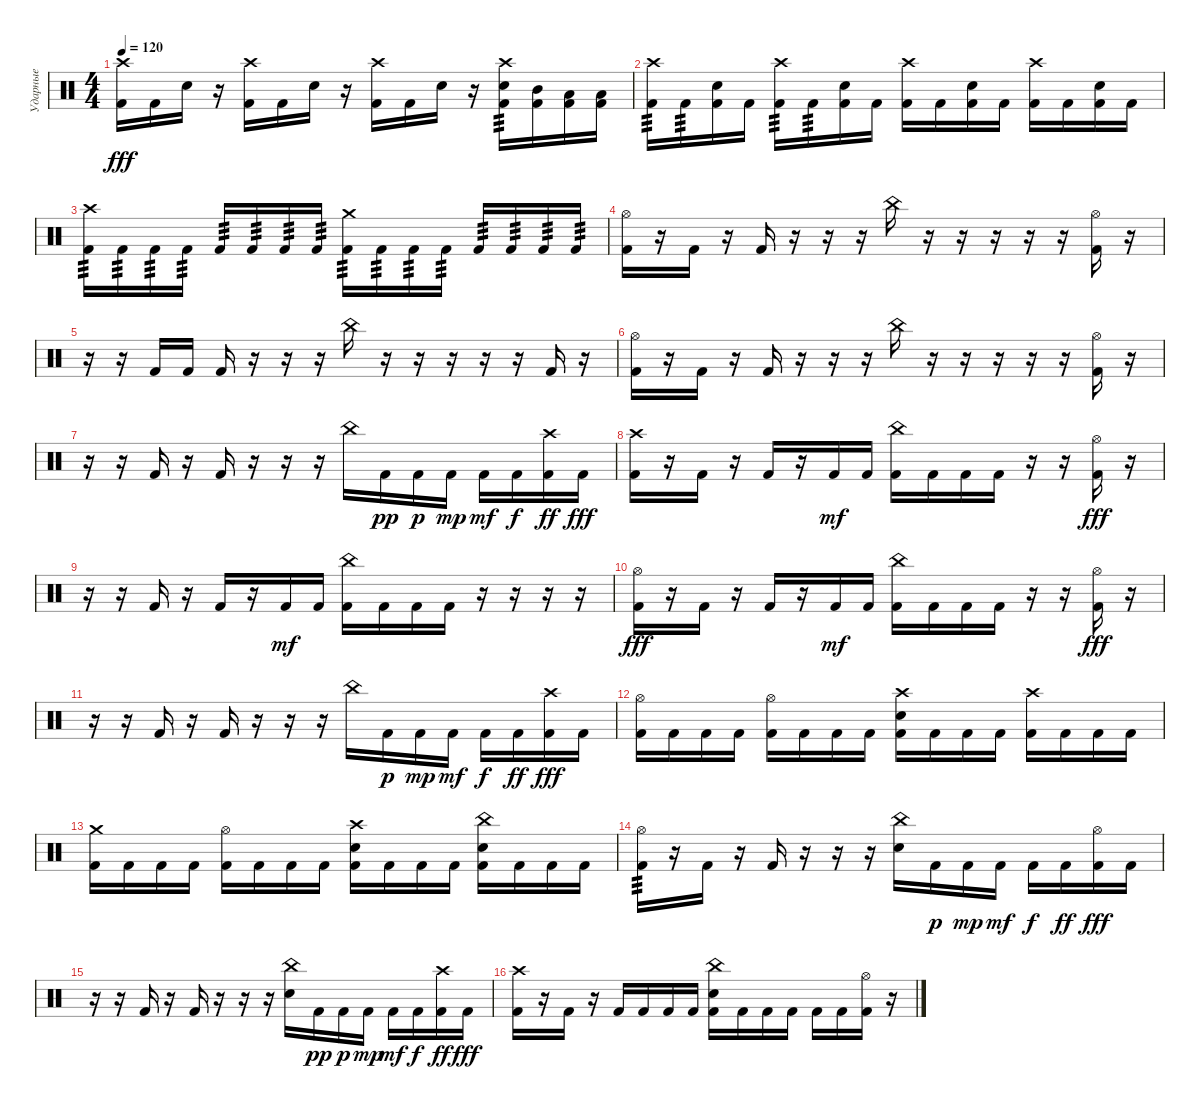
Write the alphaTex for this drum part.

\track ("Ударные" "Ударные") {instrument percussion}
\staff {score}
\articulation defaults
\ts (4 4)
\tempo 120
\clef neutral
\ks c
("Crash high (hit)" "Kick (hit) 2").16{dy fff} "Kick (hit) 2".16 "Snare (hit) 2".16 r.16 ("Crash high (hit)" "Kick (hit) 2").16 "Kick (hit) 2".16 "Snare (hit) 2".16 r.16 ("Crash high (hit)" "Kick (hit) 2").16 "Kick (hit) 2".16 "Snare (hit) 2".16 r.16 ("Crash high (hit)" "Snare (hit) 2" "Kick (hit) 2").16{tp 3} ("Mid Tom (hit)" "Kick (hit) 2").16 ("Low Tom (hit)" "Kick (hit) 2").16 ("Low Floor Tom (hit)" "Kick (hit) 2").16 |
("Crash high (hit)" "Kick (hit) 2").16{tp 3} "Kick (hit) 2".16{tp 3} ("Snare (hit) 2" "Kick (hit) 2").16 "Kick (hit) 2".16 ("Crash high (hit)" "Kick (hit) 2").16{tp 3} "Kick (hit) 2".16{tp 3} ("Snare (hit) 2" "Kick (hit) 2").16 "Kick (hit) 2".16 ("Crash high (hit)" "Kick (hit) 2").16 "Kick (hit) 2".16 ("Snare (hit) 2" "Kick (hit) 2").16 "Kick (hit) 2".16 ("Crash high (hit)" "Kick (hit) 2").16 "Kick (hit) 2".16 ("Snare (hit) 2" "Kick (hit) 2").16 "Kick (hit) 2".16 |
("Crash high (hit)" "Kick (hit) 2").16{tp 3} "Kick (hit) 2".16{tp 3} "Kick (hit) 2".16{tp 3} "Kick (hit) 2".16{tp 3} "Kick (hit) 2".16{tp 3} "Kick (hit) 2".16{tp 3} "Kick (hit) 2".16{tp 3} "Kick (hit) 2".16{tp 3} ("Crash medium (hit)" "Kick (hit) 2").16{tp 3} "Kick (hit) 2".16{tp 3} "Kick (hit) 2".16{tp 3} "Kick (hit) 2".16{tp 3} "Kick (hit) 2".16{tp 3} "Kick (hit) 2".16{tp 3} "Kick (hit) 2".16{tp 3} "Kick (hit) 2".16{tp 3} |
("Hi-Hat (open)" "Kick (hit) 2").16 r.16 "Kick (hit) 2".16 r.16 "Kick (hit) 2".16 r.16 r.16 r.16 "China (hit)".16 r.16 r.16 r.16 r.16 r.16 ("Hi-Hat (open)" "Kick (hit) 2").16 r.16 |
r.16 r.16 "Kick (hit) 2".16 "Kick (hit) 2".16 "Kick (hit) 2".16 r.16 r.16 r.16 "China (hit)".16 r.16 r.16 r.16 r.16 r.16 "Kick (hit) 2".16 r.16 |
("Hi-Hat (open)" "Kick (hit) 2").16 r.16 "Kick (hit) 2".16 r.16 "Kick (hit) 2".16 r.16 r.16 r.16 "China (hit)".16 r.16 r.16 r.16 r.16 r.16 ("Hi-Hat (open)" "Kick (hit) 2").16 r.16 |
r.16 r.16 "Kick (hit) 2".16 r.16 "Kick (hit) 2".16 r.16 r.16 r.16 "China (hit)".16 "Kick (hit) 2".16{dy pp} "Kick (hit) 2".16{dy p} "Kick (hit) 2".16{dy mp} "Kick (hit) 2".16{dy mf} "Kick (hit) 2".16{dy f} ("Crash high (hit)" "Kick (hit) 2").16{dy ff} "Kick (hit) 2".16{dy fff} |
("Crash high (hit)" "Kick (hit) 2").16 r.16 "Kick (hit) 2".16 r.16 "Kick (hit) 2".16 r.16 "Kick (hit) 2".16{dy mf} "Kick (hit) 2".16 ("China (hit)" "Kick (hit) 2").16 "Kick (hit) 2".16 "Kick (hit) 2".16 "Kick (hit) 2".16 r.16 r.16 ("Hi-Hat (open)" "Kick (hit) 2").16{dy fff} r.16 |
r.16 r.16 "Kick (hit) 2".16 r.16 "Kick (hit) 2".16 r.16 "Kick (hit) 2".16{dy mf} "Kick (hit) 2".16 ("China (hit)" "Kick (hit) 2").16 "Kick (hit) 2".16 "Kick (hit) 2".16 "Kick (hit) 2".16 r.16 r.16 r.16 r.16 |
("Hi-Hat (open)" "Kick (hit) 2").16{dy fff} r.16 "Kick (hit) 2".16 r.16 "Kick (hit) 2".16 r.16 "Kick (hit) 2".16{dy mf} "Kick (hit) 2".16 ("China (hit)" "Kick (hit) 2").16 "Kick (hit) 2".16 "Kick (hit) 2".16 "Kick (hit) 2".16 r.16 r.16 ("Hi-Hat (open)" "Kick (hit) 2").16{dy fff} r.16 |
r.16 r.16 "Kick (hit) 2".16 r.16 "Kick (hit) 2".16 r.16 r.16 r.16 "China (hit)".16 "Kick (hit) 2".16{dy p} "Kick (hit) 2".16{dy mp} "Kick (hit) 2".16{dy mf} "Kick (hit) 2".16{dy f} "Kick (hit) 2".16{dy ff} ("Crash high (hit)" "Kick (hit) 2").16{dy fff} "Kick (hit) 2".16 |
("Hi-Hat (open)" "Kick (hit) 2").16 "Kick (hit) 2".16 "Kick (hit) 2".16 "Kick (hit) 2".16 ("Hi-Hat (open)" "Kick (hit) 2").16 "Kick (hit) 2".16 "Kick (hit) 2".16 "Kick (hit) 2".16 ("Crash high (hit)" "Snare (hit) 2" "Kick (hit) 2").16 "Kick (hit) 2".16 "Kick (hit) 2".16 "Kick (hit) 2".16 ("Crash high (hit)" "Kick (hit) 2").16 "Kick (hit) 2".16 "Kick (hit) 2".16 "Kick (hit) 2".16 |
("Crash medium (hit)" "Kick (hit) 2").16 "Kick (hit) 2".16 "Kick (hit) 2".16 "Kick (hit) 2".16 ("Hi-Hat (open)" "Kick (hit) 2").16 "Kick (hit) 2".16 "Kick (hit) 2".16 "Kick (hit) 2".16 ("Crash high (hit)" "Snare (hit) 2" "Kick (hit) 2").16 "Kick (hit) 2".16 "Kick (hit) 2".16 "Kick (hit) 2".16 ("China (hit)" "Snare (hit) 2" "Kick (hit) 2").16 "Kick (hit) 2".16 "Kick (hit) 2".16 "Kick (hit) 2".16 |
("Hi-Hat (open)" "Kick (hit) 2").16{tp 3} r.16 "Kick (hit) 2".16 r.16 "Kick (hit) 2".16 r.16 r.16 r.16 ("China (hit)" "Snare (hit) 2").16 "Kick (hit) 2".16{dy p} "Kick (hit) 2".16{dy mp} "Kick (hit) 2".16{dy mf} "Kick (hit) 2".16{dy f} "Kick (hit) 2".16{dy ff} ("Hi-Hat (open)" "Kick (hit) 2").16{dy fff} "Kick (hit) 2".16 |
r.16 r.16 "Kick (hit) 2".16 r.16 "Kick (hit) 2".16 r.16 r.16 r.16 ("China (hit)" "Snare (hit) 2").16 "Kick (hit) 2".16{dy pp} "Kick (hit) 2".16{dy p} "Kick (hit) 2".16{dy mp} "Kick (hit) 2".16{dy mf} "Kick (hit) 2".16{dy f} ("Crash high (hit)" "Kick (hit) 2").16{dy ff} "Kick (hit) 2".16{dy fff} |
("Crash high (hit)" "Kick (hit) 2").16 r.16 "Kick (hit) 2".16 r.16 "Kick (hit) 2".16 "Kick (hit) 2".16 "Kick (hit) 2".16 "Kick (hit) 2".16 ("China (hit)" "Snare (hit) 2" "Kick (hit) 2").16 "Kick (hit) 2".16 "Kick (hit) 2".16 "Kick (hit) 2".16 "Kick (hit) 2".16 "Kick (hit) 2".16 ("Hi-Hat (open)" "Kick (hit) 2").16 r.16
